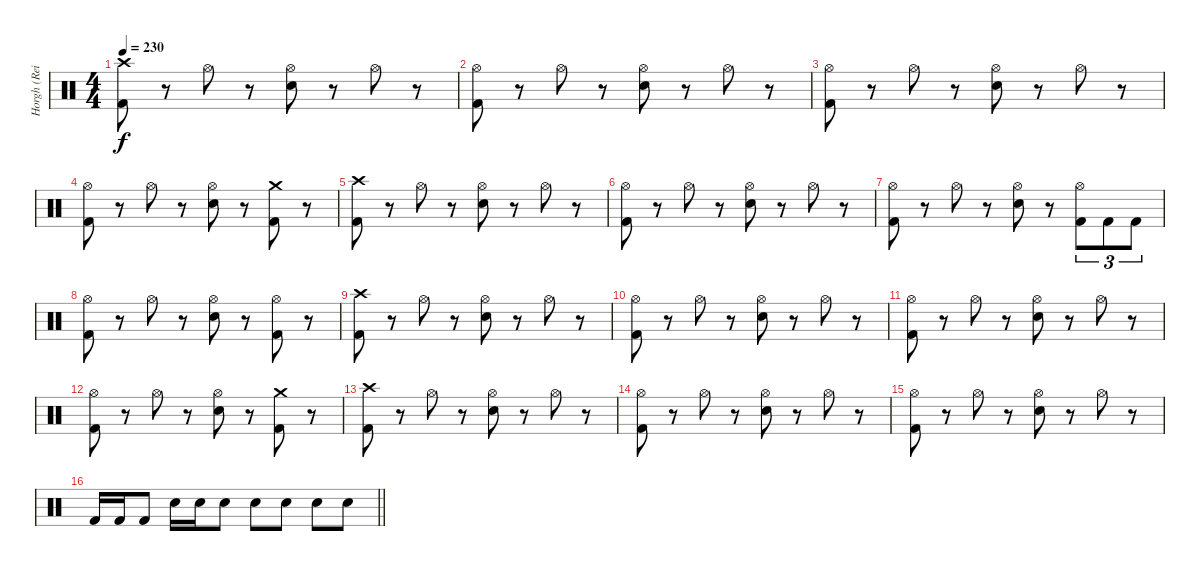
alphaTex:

\track ("Horgh (Reidar Horghagen)" "Horgh (Rei") {instrument percussion}
\staff {score}
\articulation defaults
\ts (4 4)
\tempo 230
\clef neutral
\ks c
("Crash high (hit)" "Kick (hit) 2").8{dy f} r.8 "Hi-Hat (open)".8 r.8 ("Hi-Hat (open)" "Snare (hit) 2").8 r.8 "Hi-Hat (open)".8 r.8 |
("Hi-Hat (open)" "Kick (hit) 2").8 r.8 "Hi-Hat (open)".8 r.8 ("Hi-Hat (open)" "Snare (hit) 2").8 r.8 "Hi-Hat (open)".8 r.8 |
("Hi-Hat (open)" "Kick (hit) 2").8 r.8 "Hi-Hat (open)".8 r.8 ("Hi-Hat (open)" "Snare (hit) 2").8 r.8 "Hi-Hat (open)".8 r.8 |
("Hi-Hat (open)" "Kick (hit) 2").8 r.8 "Hi-Hat (open)".8 r.8 ("Hi-Hat (open)" "Snare (hit) 2").8 r.8 ("Crash medium (hit)" "Kick (hit) 2").8 r.8 |
("Crash high (hit)" "Kick (hit) 2").8 r.8 "Hi-Hat (open)".8 r.8 ("Hi-Hat (open)" "Snare (hit) 2").8 r.8 "Hi-Hat (open)".8 r.8 |
("Hi-Hat (open)" "Kick (hit) 2").8 r.8 "Hi-Hat (open)".8 r.8 ("Hi-Hat (open)" "Snare (hit) 2").8 r.8 "Hi-Hat (open)".8 r.8 |
("Hi-Hat (open)" "Kick (hit) 2").8 r.8 "Hi-Hat (open)".8 r.8 ("Hi-Hat (open)" "Snare (hit) 2").8 r.8 ("Hi-Hat (open)" "Kick (hit) 2").8{tu (3 2)} "Kick (hit) 2".8{tu (3 2)} "Kick (hit) 2".8{tu (3 2)} |
("Hi-Hat (open)" "Kick (hit) 2").8 r.8 "Hi-Hat (open)".8 r.8 ("Hi-Hat (open)" "Snare (hit) 2").8 r.8 ("Hi-Hat (open)" "Kick (hit) 2").8 r.8 |
("Crash high (hit)" "Kick (hit) 2").8 r.8 "Hi-Hat (open)".8 r.8 ("Hi-Hat (open)" "Snare (hit) 2").8 r.8 "Hi-Hat (open)".8 r.8 |
("Hi-Hat (open)" "Kick (hit) 2").8 r.8 "Hi-Hat (open)".8 r.8 ("Hi-Hat (open)" "Snare (hit) 2").8 r.8 "Hi-Hat (open)".8 r.8 |
("Hi-Hat (open)" "Kick (hit) 2").8 r.8 "Hi-Hat (open)".8 r.8 ("Hi-Hat (open)" "Snare (hit) 2").8 r.8 "Hi-Hat (open)".8 r.8 |
("Hi-Hat (open)" "Kick (hit) 2").8 r.8 "Hi-Hat (open)".8 r.8 ("Hi-Hat (open)" "Snare (hit) 2").8 r.8 ("Crash medium (hit)" "Kick (hit) 2").8 r.8 |
("Crash high (hit)" "Kick (hit) 2").8 r.8 "Hi-Hat (open)".8 r.8 ("Hi-Hat (open)" "Snare (hit) 2").8 r.8 "Hi-Hat (open)".8 r.8 |
("Hi-Hat (open)" "Kick (hit) 2").8 r.8 "Hi-Hat (open)".8 r.8 ("Hi-Hat (open)" "Snare (hit) 2").8 r.8 "Hi-Hat (open)".8 r.8 |
("Hi-Hat (open)" "Kick (hit) 2").8 r.8 "Hi-Hat (open)".8 r.8 ("Hi-Hat (open)" "Snare (hit) 2").8 r.8 "Hi-Hat (open)".8 r.8 |
\barLineRight lightlight "Kick (hit) 2".16 "Kick (hit) 2".16 "Kick (hit) 2".8 "Snare (hit) 2".16 "Snare (hit) 2".16 "Snare (hit) 2".8 "Snare (hit) 2".8 "Snare (hit) 2".8 "Snare (hit) 2".8 "Snare (hit) 2".8
